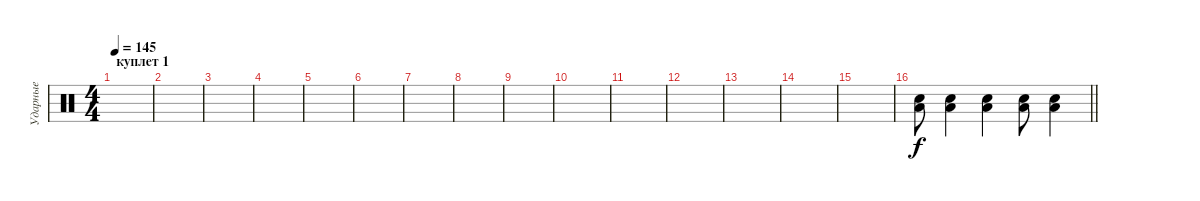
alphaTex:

\track ("Ударные" "Ударные") {instrument percussion}
\staff {score}
\articulation defaults
\ts (4 4)
\section ("" "куплет 1")
\tempo 145
\clef neutral
\ks c
|
|
|
|
|
|
|
|
|
|
|
|
|
|
|
\barLineRight lightlight
("Electric Snare (hit)" "Low Floor Tom (hit)").8 ("Electric Snare (hit)" "Low Floor Tom (hit)").4 ("Electric Snare (hit)" "Low Floor Tom (hit)").4 ("Electric Snare (hit)" "Low Floor Tom (hit)").8 ("Electric Snare (hit)" "Low Floor Tom (hit)").4
